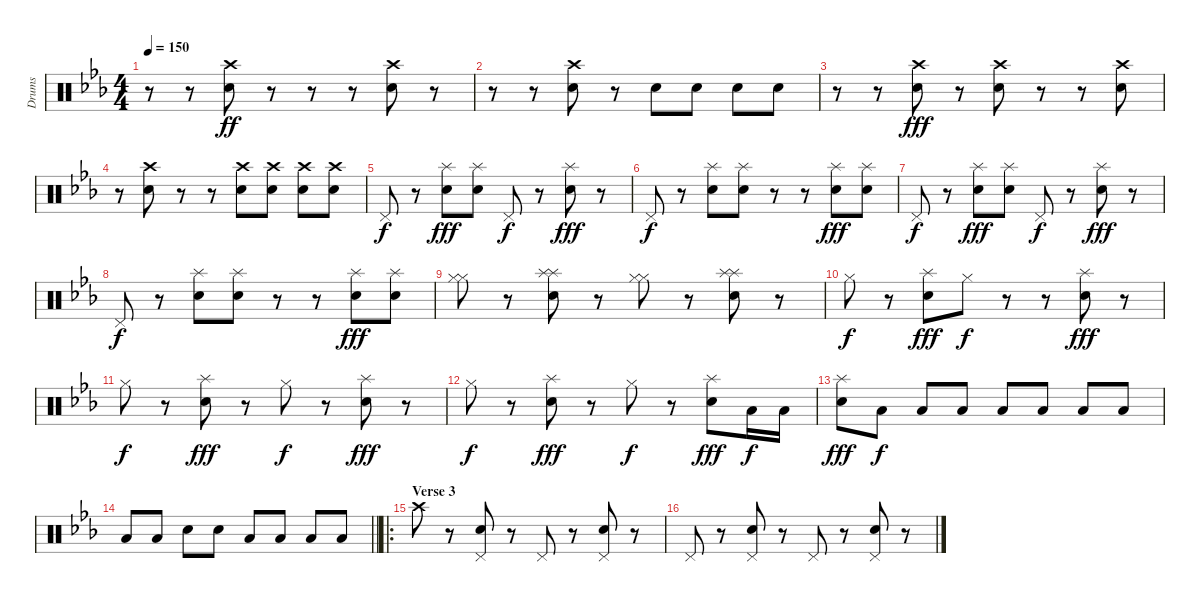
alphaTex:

\track ("Drums" "Drums") {instrument percussion}
\staff {score}
\articulation defaults
\ts (4 4)
\tempo 150
\clef neutral
\ks cminor
r.8{dy fff} r.8 ("Crash high (hit)" "Electric Snare (hit)").8{dy ff} r.8 r.8 r.8 ("Crash high (hit)" "Electric Snare (hit)").8 r.8 |
r.8 r.8 ("Crash high (hit)" "Electric Snare (hit)").8 r.8 "Electric Snare (hit)".8 "Electric Snare (hit)".8 "Electric Snare (hit)".8 "Electric Snare (hit)".8 |
r.8 r.8 ("Crash high (hit)" "Electric Snare (hit)").8{dy fff} r.8 ("Crash high (hit)" "Electric Snare (hit)").8 r.8 r.8 ("Crash high (hit)" "Electric Snare (hit)").8 |
r.8 ("Crash high (hit)" "Electric Snare (hit)").8 r.8 r.8 ("Crash high (hit)" "Electric Snare (hit)").8 ("Crash high (hit)" "Electric Snare (hit)").8 ("Crash high (hit)" "Electric Snare (hit)").8 ("Crash high (hit)" "Electric Snare (hit)").8 |
"Pedal Hi-Hat (hit)".8{dy f} r.8 ("Splash (hit)" "Electric Snare (hit)").8{dy fff} ("Splash (hit)" "Electric Snare (hit)").8 "Pedal Hi-Hat (hit)".8{dy f} r.8 ("Splash (hit)" "Electric Snare (hit)").8{dy fff} r.8 |
"Pedal Hi-Hat (hit)".8{dy f} r.8 ("Splash (hit)" "Electric Snare (hit)").8 ("Splash (hit)" "Electric Snare (hit)").8 r.8 r.8 ("Splash (hit)" "Electric Snare (hit)").8{dy fff} ("Splash (hit)" "Electric Snare (hit)").8 |
"Pedal Hi-Hat (hit)".8{dy f} r.8 ("Splash (hit)" "Electric Snare (hit)").8{dy fff} ("Splash (hit)" "Electric Snare (hit)").8 "Pedal Hi-Hat (hit)".8{dy f} r.8 ("Splash (hit)" "Electric Snare (hit)").8{dy fff} r.8 |
"Pedal Hi-Hat (hit)".8{dy f} r.8 ("Splash (hit)" "Electric Snare (hit)").8 ("Splash (hit)" "Electric Snare (hit)").8 r.8 r.8 ("Splash (hit)" "Electric Snare (hit)").8{dy fff} ("Splash (hit)" "Electric Snare (hit)").8 |
("Hi-Hat (closed)" "Hi-Hat (closed)").8 r.8 ("Splash (hit)" "Splash (hit)" "Electric Snare (hit)").8 r.8 ("Hi-Hat (closed)" "Hi-Hat (closed)").8 r.8 ("Splash (hit)" "Splash (hit)" "Electric Snare (hit)").8 r.8 |
"Hi-Hat (closed)".8{dy f} r.8 ("Splash (hit)" "Electric Snare (hit)").8{dy fff} "Hi-Hat (closed)".8{dy f} r.8 r.8 ("Splash (hit)" "Electric Snare (hit)").8{dy fff} r.8 |
"Hi-Hat (closed)".8{dy f} r.8 ("Splash (hit)" "Electric Snare (hit)").8{dy fff} r.8 "Hi-Hat (closed)".8{dy f} r.8 ("Splash (hit)" "Electric Snare (hit)").8{dy fff} r.8 |
"Hi-Hat (closed)".8{dy f} r.8 ("Splash (hit)" "Electric Snare (hit)").8{dy fff} r.8 "Hi-Hat (closed)".8{dy f} r.8 ("Splash (hit)" "Electric Snare (hit)").8{dy fff} "Low Tom (hit)".16{dy f} "Low Tom (hit)".16 |
("Splash (hit)" "Electric Snare (hit)").8{dy fff} "Low Floor Tom (hit)".8{dy f} "Low Floor Tom (hit)".8 "Low Floor Tom (hit)".8 "Low Floor Tom (hit)".8 "Low Floor Tom (hit)".8 "Low Floor Tom (hit)".8 "Low Floor Tom (hit)".8 |
\barLineRight lightlight "Low Floor Tom (hit)".8 "Low Floor Tom (hit)".8 "Snare (hit)".8 "Snare (hit)".8 "Low Floor Tom (hit)".8 "Low Floor Tom (hit)".8 "Low Floor Tom (hit)".8 "Low Floor Tom (hit)".8
|
\ro
\section ("" "Verse 3")
"Crash high (hit)".8 r.8 ("Pedal Hi-Hat (hit)" "Electric Snare (hit)").8 r.8 "Pedal Hi-Hat (hit)".8 r.8 ("Pedal Hi-Hat (hit)" "Electric Snare (hit)").8 r.8 |
"Pedal Hi-Hat (hit)".8 r.8 ("Pedal Hi-Hat (hit)" "Electric Snare (hit)").8 r.8 "Pedal Hi-Hat (hit)".8 r.8 ("Pedal Hi-Hat (hit)" "Electric Snare (hit)").8 r.8
